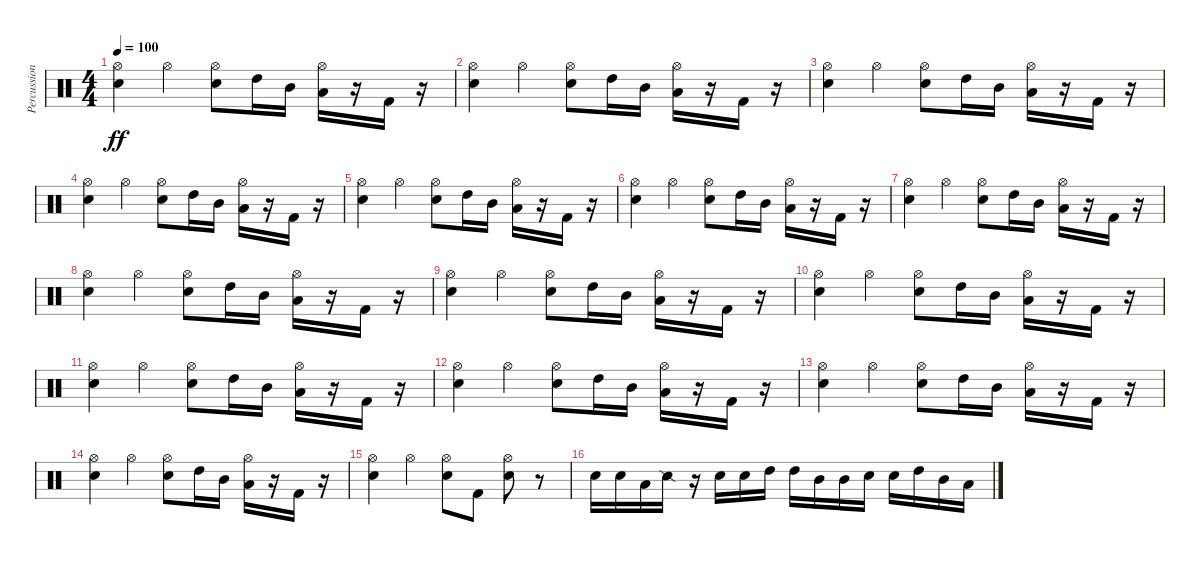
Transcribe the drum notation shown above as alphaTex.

\track ("Percussion" "Percussion") {instrument percussion}
\staff {score}
\articulation defaults
\ts (4 4)
\tempo 100
\clef neutral
\ks c
("Hi-Hat (open)" "Electric Snare (hit)").4{dy ff} "Hi-Hat (open)".4 ("Hi-Hat (open)" "Electric Snare (hit)").8 "High Tom (hit)".16 "Mid Tom (hit)".16 ("Hi-Hat (open)" "Low Tom (hit)").16 r.16 "Kick (hit) 2".16 r.16 |
("Hi-Hat (open)" "Electric Snare (hit)").4 "Hi-Hat (open)".4 ("Hi-Hat (open)" "Electric Snare (hit)").8 "High Tom (hit)".16 "Mid Tom (hit)".16 ("Hi-Hat (open)" "Low Tom (hit)").16 r.16 "Kick (hit) 2".16 r.16 |
("Hi-Hat (open)" "Electric Snare (hit)").4 "Hi-Hat (open)".4 ("Hi-Hat (open)" "Electric Snare (hit)").8 "High Tom (hit)".16 "Mid Tom (hit)".16 ("Hi-Hat (open)" "Low Tom (hit)").16 r.16 "Kick (hit) 2".16 r.16 |
("Hi-Hat (open)" "Electric Snare (hit)").4 "Hi-Hat (open)".4 ("Hi-Hat (open)" "Electric Snare (hit)").8 "High Tom (hit)".16 "Mid Tom (hit)".16 ("Hi-Hat (open)" "Low Tom (hit)").16 r.16 "Kick (hit) 2".16 r.16 |
("Hi-Hat (open)" "Electric Snare (hit)").4 "Hi-Hat (open)".4 ("Hi-Hat (open)" "Electric Snare (hit)").8 "High Tom (hit)".16 "Mid Tom (hit)".16 ("Hi-Hat (open)" "Low Tom (hit)").16 r.16 "Kick (hit) 2".16 r.16 |
("Hi-Hat (open)" "Electric Snare (hit)").4 "Hi-Hat (open)".4 ("Hi-Hat (open)" "Electric Snare (hit)").8 "High Tom (hit)".16 "Mid Tom (hit)".16 ("Hi-Hat (open)" "Low Tom (hit)").16 r.16 "Kick (hit) 2".16 r.16 |
("Hi-Hat (open)" "Electric Snare (hit)").4 "Hi-Hat (open)".4 ("Hi-Hat (open)" "Electric Snare (hit)").8 "High Tom (hit)".16 "Mid Tom (hit)".16 ("Hi-Hat (open)" "Low Tom (hit)").16 r.16 "Kick (hit) 2".16 r.16 |
("Hi-Hat (open)" "Electric Snare (hit)").4 "Hi-Hat (open)".4 ("Hi-Hat (open)" "Electric Snare (hit)").8 "High Tom (hit)".16 "Mid Tom (hit)".16 ("Hi-Hat (open)" "Low Tom (hit)").16 r.16 "Kick (hit) 2".16 r.16 |
("Hi-Hat (open)" "Electric Snare (hit)").4 "Hi-Hat (open)".4 ("Hi-Hat (open)" "Electric Snare (hit)").8 "High Tom (hit)".16 "Mid Tom (hit)".16 ("Hi-Hat (open)" "Low Tom (hit)").16 r.16 "Kick (hit) 2".16 r.16 |
("Hi-Hat (open)" "Electric Snare (hit)").4 "Hi-Hat (open)".4 ("Hi-Hat (open)" "Electric Snare (hit)").8 "High Tom (hit)".16 "Mid Tom (hit)".16 ("Hi-Hat (open)" "Low Tom (hit)").16 r.16 "Kick (hit) 2".16 r.16 |
("Hi-Hat (open)" "Electric Snare (hit)").4 "Hi-Hat (open)".4 ("Hi-Hat (open)" "Electric Snare (hit)").8 "High Tom (hit)".16 "Mid Tom (hit)".16 ("Hi-Hat (open)" "Low Tom (hit)").16 r.16 "Kick (hit) 2".16 r.16 |
("Hi-Hat (open)" "Electric Snare (hit)").4 "Hi-Hat (open)".4 ("Hi-Hat (open)" "Electric Snare (hit)").8 "High Tom (hit)".16 "Mid Tom (hit)".16 ("Hi-Hat (open)" "Low Tom (hit)").16 r.16 "Kick (hit) 2".16 r.16 |
("Hi-Hat (open)" "Electric Snare (hit)").4 "Hi-Hat (open)".4 ("Hi-Hat (open)" "Electric Snare (hit)").8 "High Tom (hit)".16 "Mid Tom (hit)".16 ("Hi-Hat (open)" "Low Tom (hit)").16 r.16 "Kick (hit) 2".16 r.16 |
("Hi-Hat (open)" "Electric Snare (hit)").4 "Hi-Hat (open)".4 ("Hi-Hat (open)" "Electric Snare (hit)").8 "High Tom (hit)".16 "Mid Tom (hit)".16 ("Hi-Hat (open)" "Low Tom (hit)").16 r.16 "Kick (hit) 2".16 r.16 |
("Hi-Hat (open)" "Electric Snare (hit)").4 "Hi-Hat (open)".4 ("Hi-Hat (open)" "Electric Snare (hit)").8 "Kick (hit) 2".8 ("Hi-Hat (open)" "Electric Snare (hit)").8 r.8 |
"Electric Snare (hit)".16 "Electric Snare (hit)".16 "Low Tom (hit)".16 "Snare (side stick) 2".16 r.16 "Electric Snare (hit)".16 "Electric Snare (hit)".16 "High Tom (hit)".16 "High Tom (hit)".16 "Mid Tom (hit)".16 "Mid Tom (hit)".16 "Electric Snare (hit)".16 "Electric Snare (hit)".16 "High Tom (hit)".16 "Mid Tom (hit)".16 "Low Tom (hit)".16
